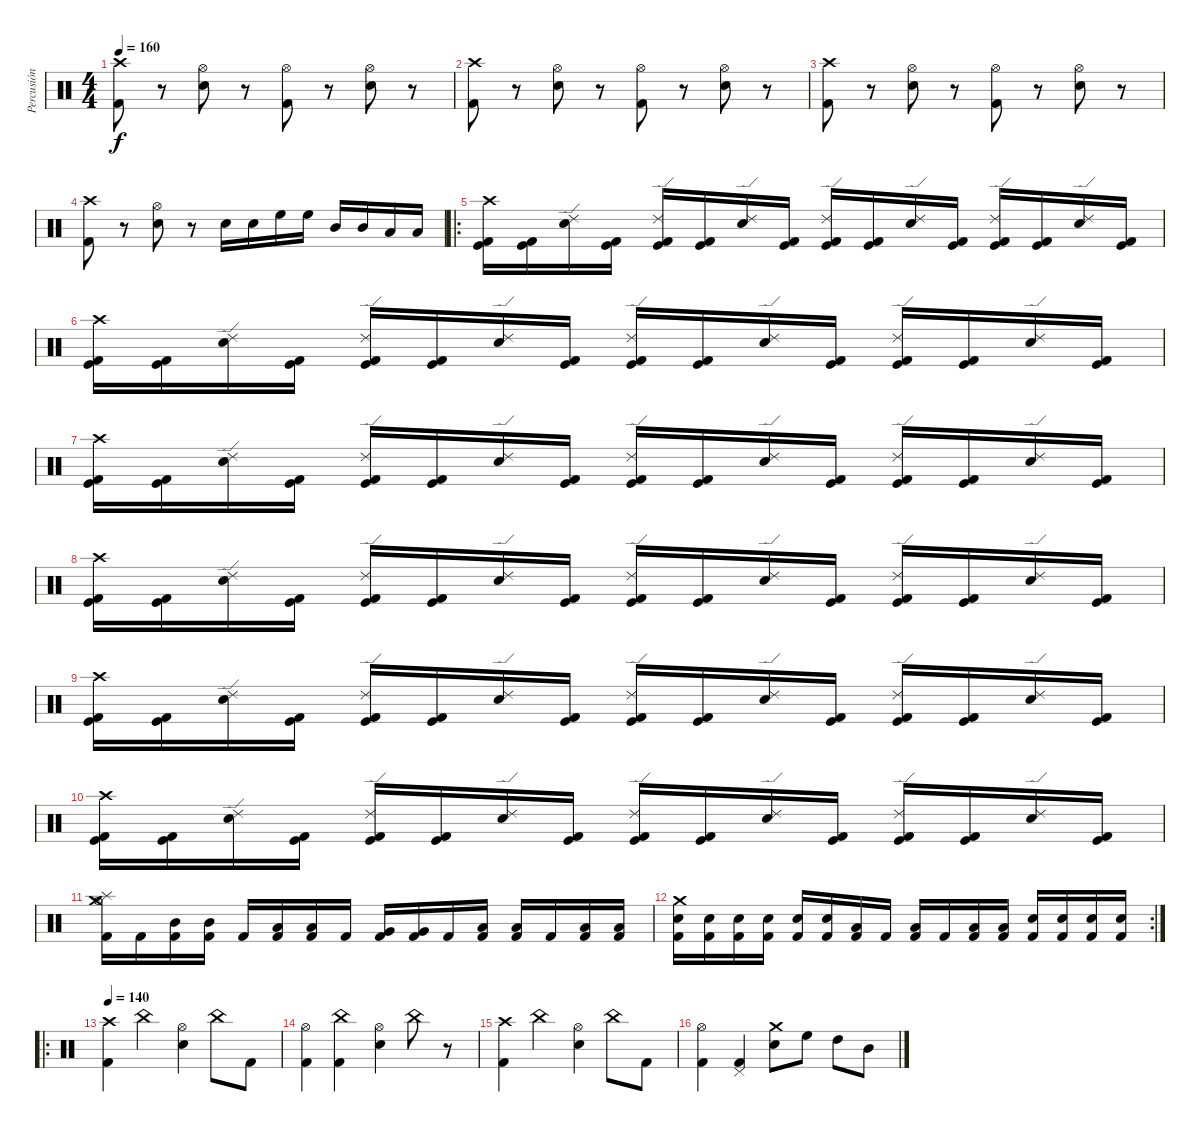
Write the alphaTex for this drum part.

\track ("Percusión" "Percusión") {instrument percussion}
\staff {score}
\articulation defaults
\ts (4 4)
\tempo 160
\clef neutral
\ks c
("Crash high (hit)" "Kick (hit) 2").8{dy f} r.8 ("Hi-Hat (open)" "Electric Snare (hit)").8 r.8 ("Hi-Hat (open)" "Kick (hit) 2").8 r.8 ("Hi-Hat (open)" "Electric Snare (hit)").8 r.8 |
("Crash high (hit)" "Kick (hit) 2").8 r.8 ("Hi-Hat (open)" "Electric Snare (hit)").8 r.8 ("Hi-Hat (open)" "Kick (hit) 2").8 r.8 ("Hi-Hat (open)" "Electric Snare (hit)").8 r.8 |
("Crash high (hit)" "Kick (hit) 2").8 r.8 ("Hi-Hat (open)" "Electric Snare (hit)").8 r.8 ("Hi-Hat (open)" "Kick (hit) 2").8 r.8 ("Hi-Hat (open)" "Electric Snare (hit)").8 r.8 |
("Crash high (hit)" "Kick (hit) 2").8 r.8 ("Hi-Hat (open)" "Electric Snare (hit)").8 r.8 "Electric Snare (hit)".16 "Electric Snare (hit)".16 "High Floor Tom (hit)".16 "High Floor Tom (hit)".16 "Mid Tom (hit)".16 "Mid Tom (hit)".16 "Low Tom (hit)".16 "Low Tom (hit)".16 |
\ro
("Kick (hit)" "Kick (hit) 2" "Crash high (hit)").16 ("Kick (hit)" "Kick (hit) 2").16 ("Electric Snare (hit)" "Ride (edge) 2").16 ("Kick (hit)" "Kick (hit) 2").16 ("Kick (hit)" "Kick (hit) 2" "Ride (edge) 2").16 ("Kick (hit)" "Kick (hit) 2").16 ("Electric Snare (hit)" "Ride (edge) 2").16 ("Kick (hit)" "Kick (hit) 2").16 ("Kick (hit)" "Kick (hit) 2" "Ride (edge) 2").16 ("Kick (hit)" "Kick (hit) 2").16 ("Electric Snare (hit)" "Ride (edge) 2").16 ("Kick (hit)" "Kick (hit) 2").16 ("Kick (hit)" "Kick (hit) 2" "Ride (edge) 2").16 ("Kick (hit)" "Kick (hit) 2").16 ("Electric Snare (hit)" "Ride (edge) 2").16 ("Kick (hit)" "Kick (hit) 2").16 |
("Kick (hit)" "Kick (hit) 2" "Crash high (hit)").16 ("Kick (hit)" "Kick (hit) 2").16 ("Electric Snare (hit)" "Ride (edge) 2").16 ("Kick (hit)" "Kick (hit) 2").16 ("Kick (hit)" "Kick (hit) 2" "Ride (edge) 2").16 ("Kick (hit)" "Kick (hit) 2").16 ("Electric Snare (hit)" "Ride (edge) 2").16 ("Kick (hit)" "Kick (hit) 2").16 ("Kick (hit)" "Kick (hit) 2" "Ride (edge) 2").16 ("Kick (hit)" "Kick (hit) 2").16 ("Electric Snare (hit)" "Ride (edge) 2").16 ("Kick (hit)" "Kick (hit) 2").16 ("Kick (hit)" "Kick (hit) 2" "Ride (edge) 2").16 ("Kick (hit)" "Kick (hit) 2").16 ("Electric Snare (hit)" "Ride (edge) 2").16 ("Kick (hit)" "Kick (hit) 2").16 |
("Kick (hit)" "Kick (hit) 2" "Crash high (hit)").16 ("Kick (hit)" "Kick (hit) 2").16 ("Electric Snare (hit)" "Ride (edge) 2").16 ("Kick (hit)" "Kick (hit) 2").16 ("Kick (hit)" "Kick (hit) 2" "Ride (edge) 2").16 ("Kick (hit)" "Kick (hit) 2").16 ("Electric Snare (hit)" "Ride (edge) 2").16 ("Kick (hit)" "Kick (hit) 2").16 ("Kick (hit)" "Kick (hit) 2" "Ride (edge) 2").16 ("Kick (hit)" "Kick (hit) 2").16 ("Electric Snare (hit)" "Ride (edge) 2").16 ("Kick (hit)" "Kick (hit) 2").16 ("Kick (hit)" "Kick (hit) 2" "Ride (edge) 2").16 ("Kick (hit)" "Kick (hit) 2").16 ("Electric Snare (hit)" "Ride (edge) 2").16 ("Kick (hit)" "Kick (hit) 2").16 |
("Kick (hit)" "Kick (hit) 2" "Crash high (hit)").16 ("Kick (hit)" "Kick (hit) 2").16 ("Electric Snare (hit)" "Ride (edge) 2").16 ("Kick (hit)" "Kick (hit) 2").16 ("Kick (hit)" "Kick (hit) 2" "Ride (edge) 2").16 ("Kick (hit)" "Kick (hit) 2").16 ("Electric Snare (hit)" "Ride (edge) 2").16 ("Kick (hit)" "Kick (hit) 2").16 ("Kick (hit)" "Kick (hit) 2" "Ride (edge) 2").16 ("Kick (hit)" "Kick (hit) 2").16 ("Electric Snare (hit)" "Ride (edge) 2").16 ("Kick (hit)" "Kick (hit) 2").16 ("Kick (hit)" "Kick (hit) 2" "Ride (edge) 2").16 ("Kick (hit)" "Kick (hit) 2").16 ("Electric Snare (hit)" "Ride (edge) 2").16 ("Kick (hit)" "Kick (hit) 2").16 |
("Kick (hit)" "Kick (hit) 2" "Crash high (hit)").16 ("Kick (hit)" "Kick (hit) 2").16 ("Electric Snare (hit)" "Ride (edge) 2").16 ("Kick (hit)" "Kick (hit) 2").16 ("Kick (hit)" "Kick (hit) 2" "Ride (edge) 2").16 ("Kick (hit)" "Kick (hit) 2").16 ("Electric Snare (hit)" "Ride (edge) 2").16 ("Kick (hit)" "Kick (hit) 2").16 ("Kick (hit)" "Kick (hit) 2" "Ride (edge) 2").16 ("Kick (hit)" "Kick (hit) 2").16 ("Electric Snare (hit)" "Ride (edge) 2").16 ("Kick (hit)" "Kick (hit) 2").16 ("Kick (hit)" "Kick (hit) 2" "Ride (edge) 2").16 ("Kick (hit)" "Kick (hit) 2").16 ("Electric Snare (hit)" "Ride (edge) 2").16 ("Kick (hit)" "Kick (hit) 2").16 |
("Kick (hit)" "Kick (hit) 2" "Crash high (hit)").16 ("Kick (hit)" "Kick (hit) 2").16 ("Electric Snare (hit)" "Ride (edge) 2").16 ("Kick (hit)" "Kick (hit) 2").16 ("Kick (hit)" "Kick (hit) 2" "Ride (edge) 2").16 ("Kick (hit)" "Kick (hit) 2").16 ("Electric Snare (hit)" "Ride (edge) 2").16 ("Kick (hit)" "Kick (hit) 2").16 ("Kick (hit)" "Kick (hit) 2" "Ride (edge) 2").16 ("Kick (hit)" "Kick (hit) 2").16 ("Electric Snare (hit)" "Ride (edge) 2").16 ("Kick (hit)" "Kick (hit) 2").16 ("Kick (hit)" "Kick (hit) 2" "Ride (edge) 2").16 ("Kick (hit)" "Kick (hit) 2").16 ("Electric Snare (hit)" "Ride (edge) 2").16 ("Kick (hit)" "Kick (hit) 2").16 |
("Splash (hit)" "Hi-Hat (open)" "Crash medium (hit)" "Kick (hit) 2").16 "Kick (hit) 2".16 ("Mid Tom (hit)" "Kick (hit) 2").16 ("Mid Tom (hit)" "Kick (hit) 2").16 "Kick (hit) 2".16 ("Low Tom (hit)" "Kick (hit) 2").16 ("Low Tom (hit)" "Kick (hit) 2").16 "Kick (hit) 2".16 ("Very Low Tom (hit)" "Kick (hit) 2").16 ("Very Low Tom (hit)" "Kick (hit) 2").16 "Kick (hit) 2".16 ("Low Floor Tom (hit)" "Kick (hit) 2").16 ("Low Floor Tom (hit)" "Kick (hit) 2").16 "Kick (hit) 2".16 ("Low Floor Tom (hit)" "Kick (hit) 2").16 ("Low Floor Tom (hit)" "Kick (hit) 2").16 |
\rc 2
("Kick (hit) 2" "Electric Snare (hit)" "Crash medium (hit)").16 ("Kick (hit) 2" "Electric Snare (hit)").16 ("Kick (hit) 2" "Electric Snare (hit)").16 ("Kick (hit) 2" "Electric Snare (hit)").16 ("Kick (hit) 2" "Electric Snare (hit)").16 ("Kick (hit) 2" "Electric Snare (hit)").16 ("Kick (hit) 2" "Low Tom (hit)").16 "Kick (hit) 2".16 ("Kick (hit) 2" "Low Tom (hit)").16 "Kick (hit) 2".16 ("Kick (hit) 2" "Low Tom (hit)").16 ("Kick (hit) 2" "Low Tom (hit)").16 ("Kick (hit) 2" "Electric Snare (hit)").16 ("Kick (hit) 2" "Electric Snare (hit)").16 ("Kick (hit) 2" "Electric Snare (hit)").16 ("Kick (hit) 2" "Electric Snare (hit)").16 |
\ro
\tempo 140
("Crash high (hit)" "Kick (hit) 2").4 "China (hit)".4 ("Hi-Hat (open)" "Electric Snare (hit)").4 "China (hit)".8 "Kick (hit) 2".8 |
("Hi-Hat (open)" "Kick (hit) 2").4 ("China (hit)" "Kick (hit) 2").4 ("Hi-Hat (open)" "Electric Snare (hit)").4 "China (hit)".8 r.8 |
("Crash high (hit)" "Kick (hit) 2").4 "China (hit)".4 ("Hi-Hat (open)" "Electric Snare (hit)").4 "China (hit)".8 "Kick (hit) 2".8 |
("Hi-Hat (open)" "Kick (hit) 2").4 ("Pedal Hi-Hat (hit)" "Kick (hit) 2").4 ("Crash medium (hit)" "Electric Snare (hit)").8 "High Floor Tom (hit)".8 "High Tom (hit)".8 "Mid Tom (hit)".8
